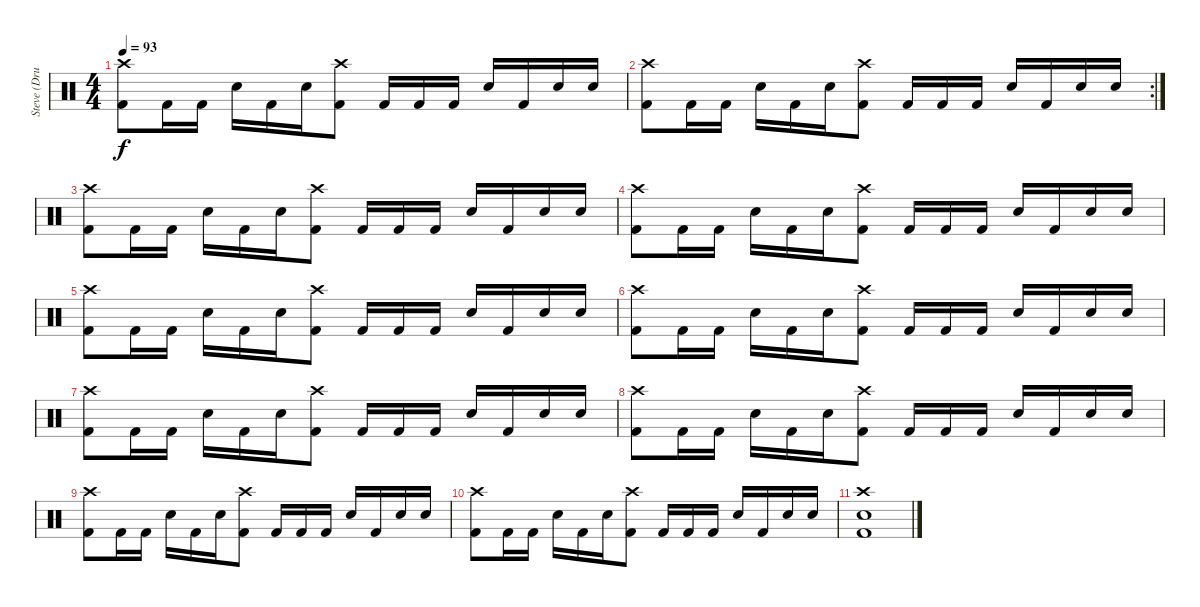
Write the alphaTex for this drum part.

\track ("Steve (Drums)" "Steve (Dru") {instrument percussion}
\staff {score}
\articulation defaults
\ts (4 4)
\tempo 93
\clef neutral
\ks c
("Crash high (hit)" "Kick (hit) 2").8{dy f} "Kick (hit) 2".16 "Kick (hit) 2".16 "Electric Snare (hit)".16 "Kick (hit) 2".16 "Electric Snare (hit)".16 ("Crash high (hit)" "Kick (hit) 2").8 "Kick (hit) 2".16 "Kick (hit) 2".16 "Kick (hit) 2".16 "Electric Snare (hit)".16 "Kick (hit) 2".16 "Electric Snare (hit)".16 "Electric Snare (hit)".16 |
\rc 2
("Crash high (hit)" "Kick (hit) 2").8 "Kick (hit) 2".16 "Kick (hit) 2".16 "Electric Snare (hit)".16 "Kick (hit) 2".16 "Electric Snare (hit)".16 ("Crash high (hit)" "Kick (hit) 2").8 "Kick (hit) 2".16 "Kick (hit) 2".16 "Kick (hit) 2".16 "Electric Snare (hit)".16 "Kick (hit) 2".16 "Electric Snare (hit)".16 "Electric Snare (hit)".16 |
("Crash high (hit)" "Kick (hit) 2").8 "Kick (hit) 2".16 "Kick (hit) 2".16 "Electric Snare (hit)".16 "Kick (hit) 2".16 "Electric Snare (hit)".16 ("Crash high (hit)" "Kick (hit) 2").8 "Kick (hit) 2".16 "Kick (hit) 2".16 "Kick (hit) 2".16 "Electric Snare (hit)".16 "Kick (hit) 2".16 "Electric Snare (hit)".16 "Electric Snare (hit)".16 |
("Crash high (hit)" "Kick (hit) 2").8 "Kick (hit) 2".16 "Kick (hit) 2".16 "Electric Snare (hit)".16 "Kick (hit) 2".16 "Electric Snare (hit)".16 ("Crash high (hit)" "Kick (hit) 2").8 "Kick (hit) 2".16 "Kick (hit) 2".16 "Kick (hit) 2".16 "Electric Snare (hit)".16 "Kick (hit) 2".16 "Electric Snare (hit)".16 "Electric Snare (hit)".16 |
("Crash high (hit)" "Kick (hit) 2").8 "Kick (hit) 2".16 "Kick (hit) 2".16 "Electric Snare (hit)".16 "Kick (hit) 2".16 "Electric Snare (hit)".16 ("Crash high (hit)" "Kick (hit) 2").8 "Kick (hit) 2".16 "Kick (hit) 2".16 "Kick (hit) 2".16 "Electric Snare (hit)".16 "Kick (hit) 2".16 "Electric Snare (hit)".16 "Electric Snare (hit)".16 |
("Crash high (hit)" "Kick (hit) 2").8 "Kick (hit) 2".16 "Kick (hit) 2".16 "Electric Snare (hit)".16 "Kick (hit) 2".16 "Electric Snare (hit)".16 ("Crash high (hit)" "Kick (hit) 2").8 "Kick (hit) 2".16 "Kick (hit) 2".16 "Kick (hit) 2".16 "Electric Snare (hit)".16 "Kick (hit) 2".16 "Electric Snare (hit)".16 "Electric Snare (hit)".16 |
("Crash high (hit)" "Kick (hit) 2").8 "Kick (hit) 2".16 "Kick (hit) 2".16 "Electric Snare (hit)".16 "Kick (hit) 2".16 "Electric Snare (hit)".16 ("Crash high (hit)" "Kick (hit) 2").8 "Kick (hit) 2".16 "Kick (hit) 2".16 "Kick (hit) 2".16 "Electric Snare (hit)".16 "Kick (hit) 2".16 "Electric Snare (hit)".16 "Electric Snare (hit)".16 |
("Crash high (hit)" "Kick (hit) 2").8 "Kick (hit) 2".16 "Kick (hit) 2".16 "Electric Snare (hit)".16 "Kick (hit) 2".16 "Electric Snare (hit)".16 ("Crash high (hit)" "Kick (hit) 2").8 "Kick (hit) 2".16 "Kick (hit) 2".16 "Kick (hit) 2".16 "Electric Snare (hit)".16 "Kick (hit) 2".16 "Electric Snare (hit)".16 "Electric Snare (hit)".16 |
("Crash high (hit)" "Kick (hit) 2").8 "Kick (hit) 2".16 "Kick (hit) 2".16 "Electric Snare (hit)".16 "Kick (hit) 2".16 "Electric Snare (hit)".16 ("Crash high (hit)" "Kick (hit) 2").8 "Kick (hit) 2".16 "Kick (hit) 2".16 "Kick (hit) 2".16 "Electric Snare (hit)".16 "Kick (hit) 2".16 "Electric Snare (hit)".16 "Electric Snare (hit)".16 |
("Crash high (hit)" "Kick (hit) 2").8 "Kick (hit) 2".16 "Kick (hit) 2".16 "Electric Snare (hit)".16 "Kick (hit) 2".16 "Electric Snare (hit)".16 ("Crash high (hit)" "Kick (hit) 2").8 "Kick (hit) 2".16 "Kick (hit) 2".16 "Kick (hit) 2".16 "Electric Snare (hit)".16 "Kick (hit) 2".16 "Electric Snare (hit)".16 "Electric Snare (hit)".16 |
("Crash high (hit)" "Electric Snare (hit)" "Kick (hit) 2").1
